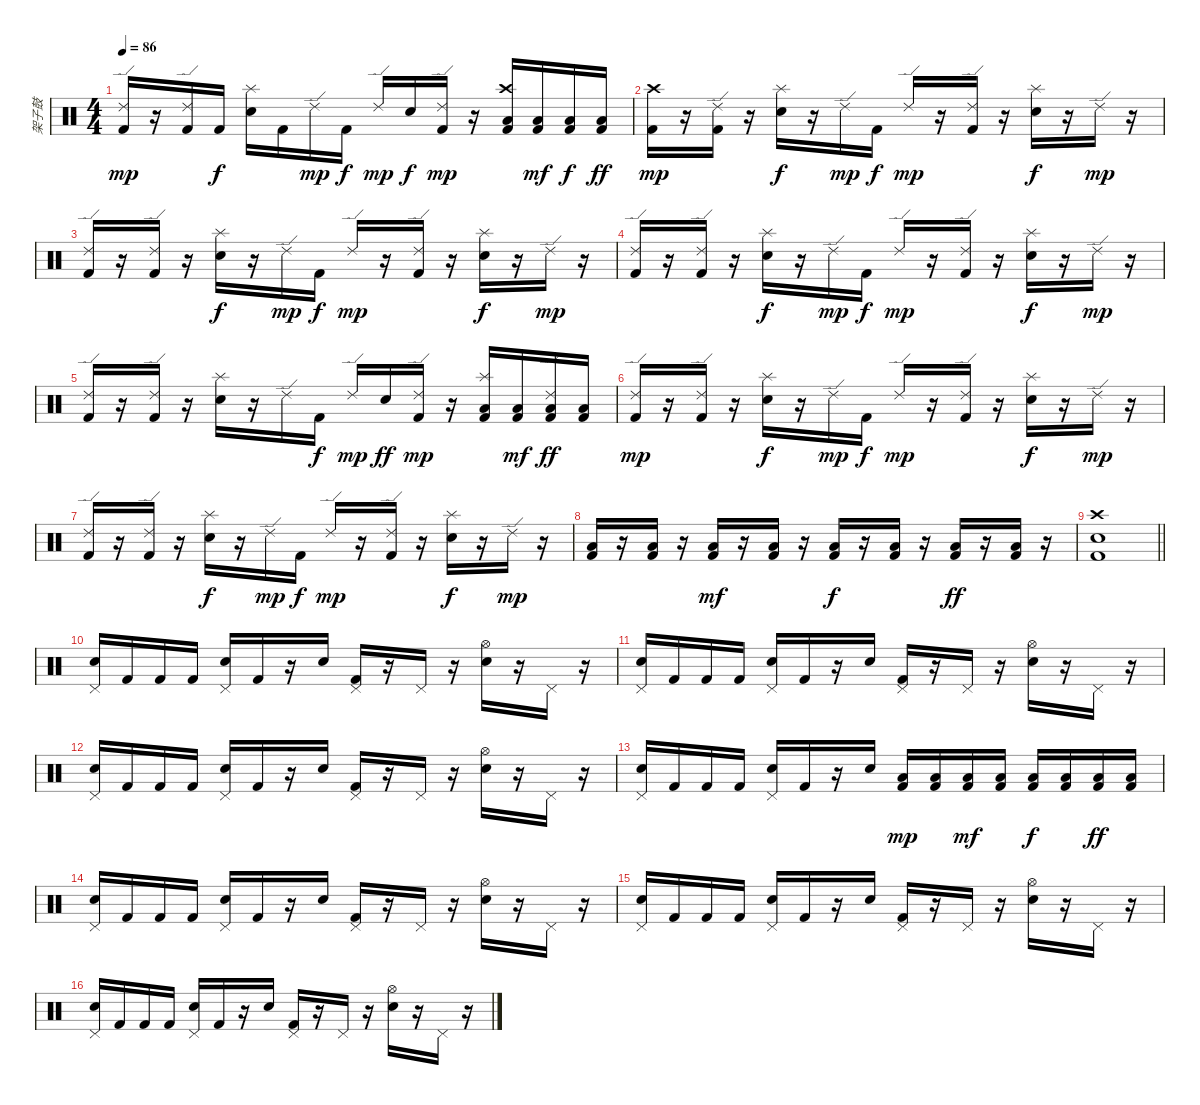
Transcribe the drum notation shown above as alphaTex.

\track ("架子鼓" "架子鼓") {instrument percussion}
\staff {score}
\articulation defaults
\ts (4 4)
\tempo 86
\clef neutral
\ks c
("Ride (edge) 2" "Kick (hit) 2").16{dy mp} r.16 ("Ride (edge) 2" "Kick (hit) 2").16 "Kick (hit) 2".16{dy f} ("Splash (hit)" "Snare (hit) 2").16 "Kick (hit) 2".16 "Ride (edge) 2".16{dy mp} "Kick (hit) 2".16{dy f} "Ride (edge) 2".16{dy mp} "Snare (hit) 2".16{dy f} ("Ride (edge) 2" "Kick (hit) 2").16{dy mp} r.16 ("Crash high (hit)" "Low Floor Tom (hit)" "Kick (hit) 2").16 ("Low Floor Tom (hit)" "Kick (hit) 2").16{dy mf} ("Low Floor Tom (hit)" "Kick (hit) 2").16{dy f} ("Low Floor Tom (hit)" "Kick (hit) 2").16{dy ff} |
("Crash high (hit)" "Kick (hit) 2").16{dy mp} r.16 ("Ride (edge) 2" "Kick (hit) 2").16 r.16 ("Splash (hit)" "Snare (hit) 2").16{dy f} r.16 "Ride (edge) 2".16{dy mp} "Kick (hit) 2".16{dy f} "Ride (edge) 2".16{dy mp} r.16 ("Ride (edge) 2" "Kick (hit) 2").16 r.16 ("Splash (hit)" "Snare (hit) 2").16{dy f} r.16 "Ride (edge) 2".16{dy mp} r.16 |
("Ride (edge) 2" "Kick (hit) 2").16 r.16 ("Ride (edge) 2" "Kick (hit) 2").16 r.16 ("Splash (hit)" "Snare (hit) 2").16{dy f} r.16 "Ride (edge) 2".16{dy mp} "Kick (hit) 2".16{dy f} "Ride (edge) 2".16{dy mp} r.16 ("Ride (edge) 2" "Kick (hit) 2").16 r.16 ("Splash (hit)" "Snare (hit) 2").16{dy f} r.16 "Ride (edge) 2".16{dy mp} r.16 |
("Ride (edge) 2" "Kick (hit) 2").16 r.16 ("Ride (edge) 2" "Kick (hit) 2").16 r.16 ("Splash (hit)" "Snare (hit) 2").16{dy f} r.16 "Ride (edge) 2".16{dy mp} "Kick (hit) 2".16{dy f} "Ride (edge) 2".16{dy mp} r.16 ("Ride (edge) 2" "Kick (hit) 2").16 r.16 ("Splash (hit)" "Snare (hit) 2").16{dy f} r.16 "Ride (edge) 2".16{dy mp} r.16 |
("Ride (edge) 2" "Kick (hit) 2").16 r.16 ("Ride (edge) 2" "Kick (hit) 2").16 r.16 ("Splash (hit)" "Snare (hit) 2").16 r.16 "Ride (edge) 2".16 "Kick (hit) 2".16{dy f} "Ride (edge) 2".16{dy mp} "Snare (hit) 2".16{dy ff} ("Ride (edge) 2" "Kick (hit) 2").16{dy mp} r.16 ("Splash (hit)" "Low Floor Tom (hit)" "Kick (hit) 2").16 ("Low Floor Tom (hit)" "Kick (hit) 2").16{dy mf} ("Ride (edge) 2" "Low Floor Tom (hit)" "Kick (hit) 2").16{dy ff} ("Low Floor Tom (hit)" "Kick (hit) 2").16 |
("Ride (edge) 2" "Kick (hit) 2").16{dy mp} r.16 ("Ride (edge) 2" "Kick (hit) 2").16 r.16 ("Splash (hit)" "Snare (hit) 2").16{dy f} r.16 "Ride (edge) 2".16{dy mp} "Kick (hit) 2".16{dy f} "Ride (edge) 2".16{dy mp} r.16 ("Ride (edge) 2" "Kick (hit) 2").16 r.16 ("Splash (hit)" "Snare (hit) 2").16{dy f} r.16 "Ride (edge) 2".16{dy mp} r.16 |
("Ride (edge) 2" "Kick (hit) 2").16 r.16 ("Ride (edge) 2" "Kick (hit) 2").16 r.16 ("Splash (hit)" "Snare (hit) 2").16{dy f} r.16 "Ride (edge) 2".16{dy mp} "Kick (hit) 2".16{dy f} "Ride (edge) 2".16{dy mp} r.16 ("Ride (edge) 2" "Kick (hit) 2").16 r.16 ("Splash (hit)" "Snare (hit) 2").16{dy f} r.16 "Ride (edge) 2".16{dy mp} r.16 |
("Low Floor Tom (hit)" "Kick (hit) 2").16 r.16 ("Low Floor Tom (hit)" "Kick (hit) 2").16 r.16 ("Low Floor Tom (hit)" "Kick (hit) 2").16{dy mf} r.16 ("Low Floor Tom (hit)" "Kick (hit) 2").16 r.16 ("Low Floor Tom (hit)" "Kick (hit) 2").16{dy f} r.16 ("Low Floor Tom (hit)" "Kick (hit) 2").16 r.16 ("Low Floor Tom (hit)" "Kick (hit) 2").16{dy ff} r.16 ("Low Floor Tom (hit)" "Kick (hit) 2").16 r.16 |
\barLineRight lightlight
("Crash high (hit)" "Snare (hit) 2" "Kick (hit) 2").1 |
\section ("" "")
("Pedal Hi-Hat (hit)" "Snare (hit) 2").16 "Kick (hit) 2".16 "Kick (hit) 2".16 "Kick (hit) 2".16 ("Pedal Hi-Hat (hit)" "Snare (hit) 2").16 "Kick (hit) 2".16 r.16 "Snare (hit) 2".16 ("Pedal Hi-Hat (hit)" "Kick (hit) 2").16 r.16 "Pedal Hi-Hat (hit)".16 r.16 ("Hi-Hat (open)" "Snare (hit) 2").16 r.16 "Pedal Hi-Hat (hit)".16 r.16 |
("Pedal Hi-Hat (hit)" "Snare (hit) 2").16 "Kick (hit) 2".16 "Kick (hit) 2".16 "Kick (hit) 2".16 ("Pedal Hi-Hat (hit)" "Snare (hit) 2").16 "Kick (hit) 2".16 r.16 "Snare (hit) 2".16 ("Pedal Hi-Hat (hit)" "Kick (hit) 2").16 r.16 "Pedal Hi-Hat (hit)".16 r.16 ("Hi-Hat (open)" "Snare (hit) 2").16 r.16 "Pedal Hi-Hat (hit)".16 r.16 |
("Pedal Hi-Hat (hit)" "Snare (hit) 2").16 "Kick (hit) 2".16 "Kick (hit) 2".16 "Kick (hit) 2".16 ("Pedal Hi-Hat (hit)" "Snare (hit) 2").16 "Kick (hit) 2".16 r.16 "Snare (hit) 2".16 ("Pedal Hi-Hat (hit)" "Kick (hit) 2").16 r.16 "Pedal Hi-Hat (hit)".16 r.16 ("Hi-Hat (open)" "Snare (hit) 2").16 r.16 "Pedal Hi-Hat (hit)".16 r.16 |
("Pedal Hi-Hat (hit)" "Snare (hit) 2").16 "Kick (hit) 2".16 "Kick (hit) 2".16 "Kick (hit) 2".16 ("Pedal Hi-Hat (hit)" "Snare (hit) 2").16 "Kick (hit) 2".16 r.16 "Snare (hit) 2".16 ("Low Floor Tom (hit)" "Kick (hit) 2").16{dy mp} ("Low Floor Tom (hit)" "Kick (hit) 2").16 ("Low Floor Tom (hit)" "Kick (hit) 2").16{dy mf} ("Low Floor Tom (hit)" "Kick (hit) 2").16 ("Low Floor Tom (hit)" "Kick (hit) 2").16{dy f} ("Low Floor Tom (hit)" "Kick (hit) 2").16 ("Low Floor Tom (hit)" "Kick (hit) 2").16{dy ff} ("Low Floor Tom (hit)" "Kick (hit) 2").16 |
("Pedal Hi-Hat (hit)" "Snare (hit) 2").16 "Kick (hit) 2".16 "Kick (hit) 2".16 "Kick (hit) 2".16 ("Pedal Hi-Hat (hit)" "Snare (hit) 2").16 "Kick (hit) 2".16 r.16 "Snare (hit) 2".16 ("Pedal Hi-Hat (hit)" "Kick (hit) 2").16 r.16 "Pedal Hi-Hat (hit)".16 r.16 ("Hi-Hat (open)" "Snare (hit) 2").16 r.16 "Pedal Hi-Hat (hit)".16 r.16 |
("Pedal Hi-Hat (hit)" "Snare (hit) 2").16 "Kick (hit) 2".16 "Kick (hit) 2".16 "Kick (hit) 2".16 ("Pedal Hi-Hat (hit)" "Snare (hit) 2").16 "Kick (hit) 2".16 r.16 "Snare (hit) 2".16 ("Pedal Hi-Hat (hit)" "Kick (hit) 2").16 r.16 "Pedal Hi-Hat (hit)".16 r.16 ("Hi-Hat (open)" "Snare (hit) 2").16 r.16 "Pedal Hi-Hat (hit)".16 r.16 |
("Pedal Hi-Hat (hit)" "Snare (hit) 2").16 "Kick (hit) 2".16 "Kick (hit) 2".16 "Kick (hit) 2".16 ("Pedal Hi-Hat (hit)" "Snare (hit) 2").16 "Kick (hit) 2".16 r.16 "Snare (hit) 2".16 ("Pedal Hi-Hat (hit)" "Kick (hit) 2").16 r.16 "Pedal Hi-Hat (hit)".16 r.16 ("Hi-Hat (open)" "Snare (hit) 2").16 r.16 "Pedal Hi-Hat (hit)".16 r.16
